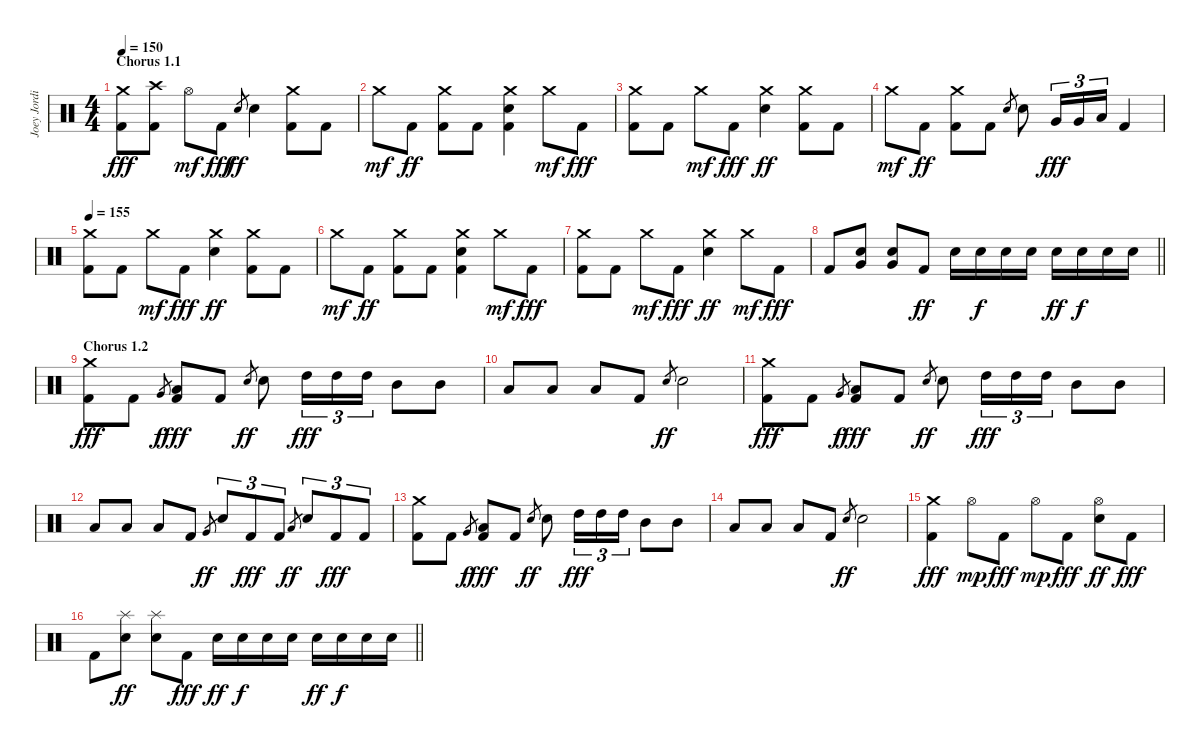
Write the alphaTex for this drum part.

\track ("Joey Jordison" "Joey Jordi") {instrument percussion}
\staff {score}
\articulation defaults
\ts (4 4)
\section ("" "Chorus 1.1")
\tempo 150
\clef neutral
\ks c
("Crash medium (hit)" "Kick (hit) 2").8{dy fff} ("Crash high (hit)" "Kick (hit) 2").8 "Hi-Hat (open)".8{dy mf} "Kick (hit) 2".8{dy fff} "Electric Snare (hit)".8{gr dy ff} "Electric Snare (hit)".4 ("Crash medium (hit)" "Kick (hit) 2").8 "Kick (hit) 2".8 |
"Crash medium (hit)".8{dy mf} "Kick (hit) 2".8{dy ff} ("Crash medium (hit)" "Kick (hit) 2").8 "Kick (hit) 2".8 ("Crash medium (hit)" "Electric Snare (hit)" "Kick (hit) 2").4 "Crash medium (hit)".8{dy mf} "Kick (hit) 2".8{dy fff} |
("Crash medium (hit)" "Kick (hit) 2").8 "Kick (hit) 2".8 "Crash medium (hit)".8{dy mf} "Kick (hit) 2".8{dy fff} ("Crash medium (hit)" "Electric Snare (hit)").4{dy ff} ("Crash medium (hit)" "Kick (hit) 2").8 "Kick (hit) 2".8 |
"Crash medium (hit)".8{dy mf} "Kick (hit) 2".8{dy ff} ("Crash medium (hit)" "Kick (hit) 2").8 "Kick (hit) 2".8 "Electric Snare (hit)".8{gr} "Electric Snare (hit)".8 "Very Low Tom (hit)".16{tu (3 2) dy fff} "Very Low Tom (hit)".16{tu (3 2)} "Low Floor Tom (hit)".16{tu (3 2)} "Kick (hit) 2".4 |
\tempo 155
("Crash medium (hit)" "Kick (hit) 2").8 "Kick (hit) 2".8 "Crash medium (hit)".8{dy mf} "Kick (hit) 2".8{dy fff} ("Crash medium (hit)" "Electric Snare (hit)").4{dy ff} ("Crash medium (hit)" "Kick (hit) 2").8 "Kick (hit) 2".8 |
"Crash medium (hit)".8{dy mf} "Kick (hit) 2".8{dy ff} ("Crash medium (hit)" "Kick (hit) 2").8 "Kick (hit) 2".8 ("Crash medium (hit)" "Electric Snare (hit)" "Kick (hit) 2").4 "Crash medium (hit)".8{dy mf} "Kick (hit) 2".8{dy fff} |
("Crash medium (hit)" "Kick (hit) 2").8 "Kick (hit) 2".8 "Crash medium (hit)".8{dy mf} "Kick (hit) 2".8{dy fff} ("Crash medium (hit)" "Electric Snare (hit)").4{dy ff} "Crash medium (hit)".8{dy mf} "Kick (hit) 2".8{dy fff} |
\barLineRight lightlight "Kick (hit) 2".8
("Electric Snare (hit)" "Very Low Tom (hit)").8 ("Electric Snare (hit)" "Very Low Tom (hit)").8 "Kick (hit) 2".8{dy ff} "Electric Snare (hit)".16 "Electric Snare (hit)".16{dy f} "Electric Snare (hit)".16 "Electric Snare (hit)".16 "Electric Snare (hit)".16{dy ff} "Electric Snare (hit)".16{dy f} "Electric Snare (hit)".16 "Electric Snare (hit)".16 |
\section ("" "Chorus 1.2")
("Crash medium (hit)" "Kick (hit) 2").8{dy fff} "Kick (hit) 2".8 "Very Low Tom (hit)".8{gr dy f} ("Low Floor Tom (hit)" "Kick (hit) 2").8{dy fff} "Kick (hit) 2".8 "Electric Snare (hit)".8{gr dy ff} "Electric Snare (hit)".8 "High Tom (hit)".16{tu (3 2) dy fff} "High Tom (hit)".16{tu (3 2)} "High Tom (hit)".16{tu (3 2)} "Mid Tom (hit)".8 "Mid Tom (hit)".8 |
"Low Tom (hit)".8 "Low Tom (hit)".8 "Low Tom (hit)".8 "Kick (hit) 2".8 "Electric Snare (hit)".8{gr dy ff} "Electric Snare (hit)".2 |
("Crash medium (hit)" "Kick (hit) 2").8{dy fff} "Kick (hit) 2".8 "Very Low Tom (hit)".8{gr dy f} ("Low Floor Tom (hit)" "Kick (hit) 2").8{dy fff} "Kick (hit) 2".8 "Electric Snare (hit)".8{gr dy ff} "Electric Snare (hit)".8 "High Tom (hit)".16{tu (3 2) dy fff} "High Tom (hit)".16{tu (3 2)} "High Tom (hit)".16{tu (3 2)} "Mid Tom (hit)".8 "Mid Tom (hit)".8 |
"Low Tom (hit)".8 "Low Tom (hit)".8 "Low Tom (hit)".8 "Kick (hit) 2".8 "Very Low Tom (hit)".8{gr dy ff} "Electric Snare (hit)".8{tu (3 2)} "Kick (hit) 2".8{tu (3 2) dy fff} "Kick (hit) 2".8{tu (3 2)} "Low Floor Tom (hit)".8{gr dy ff} "Electric Snare (hit)".8{tu (3 2)} "Kick (hit) 2".8{tu (3 2) dy fff} "Kick (hit) 2".8{tu (3 2)} |
("Crash medium (hit)" "Kick (hit) 2").8 "Kick (hit) 2".8 "Very Low Tom (hit)".8{gr dy f} ("Low Floor Tom (hit)" "Kick (hit) 2").8{dy fff} "Kick (hit) 2".8 "Electric Snare (hit)".8{gr dy ff} "Electric Snare (hit)".8 "High Tom (hit)".16{tu (3 2) dy fff} "High Tom (hit)".16{tu (3 2)} "High Tom (hit)".16{tu (3 2)} "Mid Tom (hit)".8 "Mid Tom (hit)".8 |
"Low Tom (hit)".8 "Low Tom (hit)".8 "Low Tom (hit)".8 "Kick (hit) 2".8 "Electric Snare (hit)".8{gr dy ff} "Electric Snare (hit)".2 |
("Crash medium (hit)" "Kick (hit) 2").4{dy fff} "Hi-Hat (open)".8{dy mp} "Kick (hit) 2".8{dy fff} "Hi-Hat (open)".8{dy mp} "Kick (hit) 2".8{dy fff} ("Hi-Hat (open)" "Electric Snare (hit)").8{dy ff} "Kick (hit) 2".8{dy fff} |
\barLineRight lightlight "Kick (hit) 2".8
("Splash (hit)" "Electric Snare (hit)").8{dy ff} ("Splash (hit)" "Electric Snare (hit)").8 "Kick (hit) 2".8{dy fff} "Electric Snare (hit)".16{dy ff} "Electric Snare (hit)".16{dy f} "Electric Snare (hit)".16 "Electric Snare (hit)".16 "Electric Snare (hit)".16{dy ff} "Electric Snare (hit)".16{dy f} "Electric Snare (hit)".16 "Electric Snare (hit)".16
